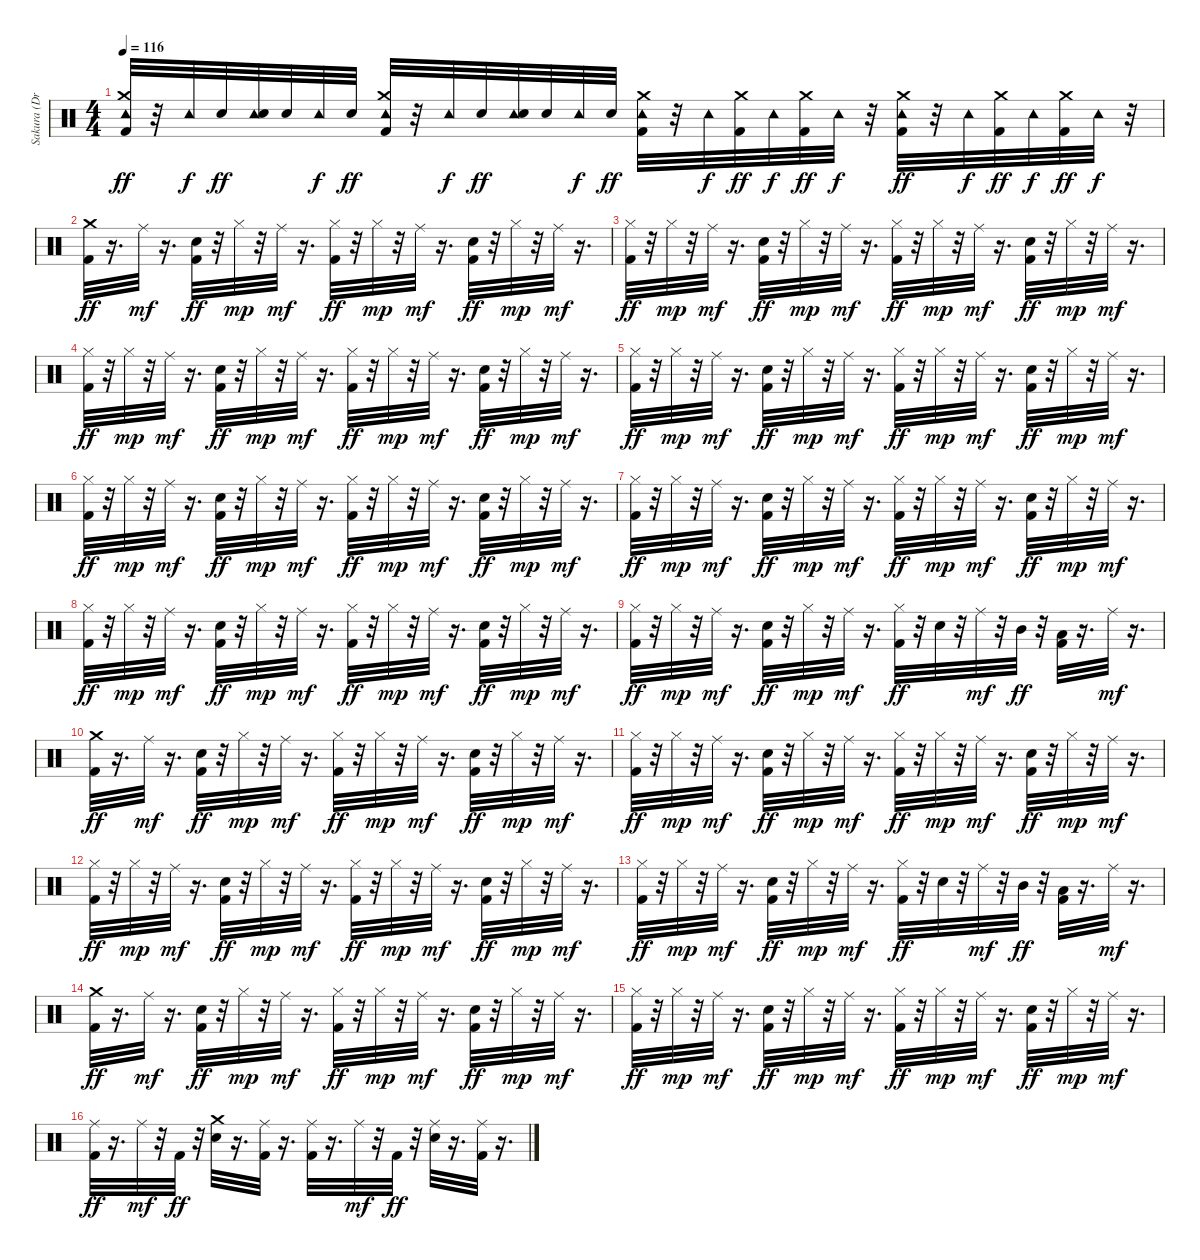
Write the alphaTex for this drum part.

\track ("Sakura (Drums)" "Sakura (Dr") {instrument percussion}
\staff {score}
\articulation defaults
\ts (4 4)
\tempo 116
\clef neutral
\ks c
("Tambourine (hit)" "Crash medium (hit)" "Kick (hit) 2").32{dy ff} r.32 "Tambourine (hit)".32{dy f} "Electric Snare (hit)".32{dy ff} ("Tambourine (hit)" "Electric Snare (hit)").32 "Electric Snare (hit)".32 "Tambourine (hit)".32{dy f} "Electric Snare (hit)".32{dy ff} ("Tambourine (hit)" "Crash medium (hit)" "Kick (hit) 2").32 r.32 "Tambourine (hit)".32{dy f} "Electric Snare (hit)".32{dy ff} ("Tambourine (hit)" "Electric Snare (hit)").32 "Electric Snare (hit)".32 "Tambourine (hit)".32{dy f} "Electric Snare (hit)".32{dy ff} ("Tambourine (hit)" "Crash medium (hit)" "Kick (hit) 2").32 r.32 "Tambourine (hit)".32{dy f} ("Crash medium (hit)" "Kick (hit) 2").32{dy ff} "Tambourine (hit)".32{dy f} ("Crash medium (hit)" "Kick (hit) 2").32{dy ff} "Tambourine (hit)".32{dy f} r.32 ("Tambourine (hit)" "Crash medium (hit)" "Kick (hit) 2").32{dy ff} r.32 "Tambourine (hit)".32{dy f} ("Crash medium (hit)" "Kick (hit) 2").32{dy ff} "Tambourine (hit)".32{dy f} ("Crash medium (hit)" "Kick (hit) 2").32{dy ff} "Tambourine (hit)".32{dy f} r.32 |
("Crash medium (hit)" "Kick (hit) 2").32{dy ff} r.16{d} "Ride (middle)".32{dy mf} r.16{d} ("Electric Snare (hit)" "Kick (hit) 2").32{dy ff} r.32 "Hi-Hat (closed)".32{dy mp} r.32 "Ride (middle)".32{dy mf} r.16{d} ("Hi-Hat (closed)" "Kick (hit) 2").32{dy ff} r.32 "Hi-Hat (closed)".32{dy mp} r.32 "Ride (middle)".32{dy mf} r.16{d} ("Electric Snare (hit)" "Kick (hit) 2").32{dy ff} r.32 "Hi-Hat (closed)".32{dy mp} r.32 "Ride (middle)".32{dy mf} r.16{d} |
("Hi-Hat (closed)" "Kick (hit) 2").32{dy ff} r.32 "Hi-Hat (closed)".32{dy mp} r.32 "Ride (middle)".32{dy mf} r.16{d} ("Electric Snare (hit)" "Kick (hit) 2").32{dy ff} r.32 "Hi-Hat (closed)".32{dy mp} r.32 "Ride (middle)".32{dy mf} r.16{d} ("Hi-Hat (closed)" "Kick (hit) 2").32{dy ff} r.32 "Hi-Hat (closed)".32{dy mp} r.32 "Ride (middle)".32{dy mf} r.16{d} ("Electric Snare (hit)" "Kick (hit) 2").32{dy ff} r.32 "Hi-Hat (closed)".32{dy mp} r.32 "Ride (middle)".32{dy mf} r.16{d} |
("Hi-Hat (closed)" "Kick (hit) 2").32{dy ff} r.32 "Hi-Hat (closed)".32{dy mp} r.32 "Ride (middle)".32{dy mf} r.16{d} ("Electric Snare (hit)" "Kick (hit) 2").32{dy ff} r.32 "Hi-Hat (closed)".32{dy mp} r.32 "Ride (middle)".32{dy mf} r.16{d} ("Hi-Hat (closed)" "Kick (hit) 2").32{dy ff} r.32 "Hi-Hat (closed)".32{dy mp} r.32 "Ride (middle)".32{dy mf} r.16{d} ("Electric Snare (hit)" "Kick (hit) 2").32{dy ff} r.32 "Hi-Hat (closed)".32{dy mp} r.32 "Ride (middle)".32{dy mf} r.16{d} |
("Hi-Hat (closed)" "Kick (hit) 2").32{dy ff} r.32 "Hi-Hat (closed)".32{dy mp} r.32 "Ride (middle)".32{dy mf} r.16{d} ("Electric Snare (hit)" "Kick (hit) 2").32{dy ff} r.32 "Hi-Hat (closed)".32{dy mp} r.32 "Ride (middle)".32{dy mf} r.16{d} ("Hi-Hat (closed)" "Kick (hit) 2").32{dy ff} r.32 "Hi-Hat (closed)".32{dy mp} r.32 "Ride (middle)".32{dy mf} r.16{d} ("Electric Snare (hit)" "Kick (hit) 2").32{dy ff} r.32 "Hi-Hat (closed)".32{dy mp} r.32 "Ride (middle)".32{dy mf} r.16{d} |
("Hi-Hat (closed)" "Kick (hit) 2").32{dy ff} r.32 "Hi-Hat (closed)".32{dy mp} r.32 "Ride (middle)".32{dy mf} r.16{d} ("Electric Snare (hit)" "Kick (hit) 2").32{dy ff} r.32 "Hi-Hat (closed)".32{dy mp} r.32 "Ride (middle)".32{dy mf} r.16{d} ("Hi-Hat (closed)" "Kick (hit) 2").32{dy ff} r.32 "Hi-Hat (closed)".32{dy mp} r.32 "Ride (middle)".32{dy mf} r.16{d} ("Electric Snare (hit)" "Kick (hit) 2").32{dy ff} r.32 "Hi-Hat (closed)".32{dy mp} r.32 "Ride (middle)".32{dy mf} r.16{d} |
("Hi-Hat (closed)" "Kick (hit) 2").32{dy ff} r.32 "Hi-Hat (closed)".32{dy mp} r.32 "Ride (middle)".32{dy mf} r.16{d} ("Electric Snare (hit)" "Kick (hit) 2").32{dy ff} r.32 "Hi-Hat (closed)".32{dy mp} r.32 "Ride (middle)".32{dy mf} r.16{d} ("Hi-Hat (closed)" "Kick (hit) 2").32{dy ff} r.32 "Hi-Hat (closed)".32{dy mp} r.32 "Ride (middle)".32{dy mf} r.16{d} ("Electric Snare (hit)" "Kick (hit) 2").32{dy ff} r.32 "Hi-Hat (closed)".32{dy mp} r.32 "Ride (middle)".32{dy mf} r.16{d} |
("Hi-Hat (closed)" "Kick (hit) 2").32{dy ff} r.32 "Hi-Hat (closed)".32{dy mp} r.32 "Ride (middle)".32{dy mf} r.16{d} ("Electric Snare (hit)" "Kick (hit) 2").32{dy ff} r.32 "Hi-Hat (closed)".32{dy mp} r.32 "Ride (middle)".32{dy mf} r.16{d} ("Hi-Hat (closed)" "Kick (hit) 2").32{dy ff} r.32 "Hi-Hat (closed)".32{dy mp} r.32 "Ride (middle)".32{dy mf} r.16{d} ("Electric Snare (hit)" "Kick (hit) 2").32{dy ff} r.32 "Hi-Hat (closed)".32{dy mp} r.32 "Ride (middle)".32{dy mf} r.16{d} |
("Hi-Hat (closed)" "Kick (hit) 2").32{dy ff} r.32 "Hi-Hat (closed)".32{dy mp} r.32 "Ride (middle)".32{dy mf} r.16{d} ("Electric Snare (hit)" "Kick (hit) 2").32{dy ff} r.32 "Hi-Hat (closed)".32{dy mp} r.32 "Ride (middle)".32{dy mf} r.16{d} ("Hi-Hat (closed)" "Kick (hit) 2").32{dy ff} r.32 "Electric Snare (hit)".32 r.32 "Ride (middle)".32{dy mf} r.32 "Mid Tom (hit)".32{dy ff} r.32 ("Low Tom (hit)" "Kick (hit) 2").32 r.16{d} "Ride (middle)".32{dy mf} r.16{d} |
("Crash medium (hit)" "Kick (hit) 2").32{dy ff} r.16{d} "Ride (middle)".32{dy mf} r.16{d} ("Electric Snare (hit)" "Kick (hit) 2").32{dy ff} r.32 "Hi-Hat (closed)".32{dy mp} r.32 "Ride (middle)".32{dy mf} r.16{d} ("Hi-Hat (closed)" "Kick (hit) 2").32{dy ff} r.32 "Hi-Hat (closed)".32{dy mp} r.32 "Ride (middle)".32{dy mf} r.16{d} ("Electric Snare (hit)" "Kick (hit) 2").32{dy ff} r.32 "Hi-Hat (closed)".32{dy mp} r.32 "Ride (middle)".32{dy mf} r.16{d} |
("Hi-Hat (closed)" "Kick (hit) 2").32{dy ff} r.32 "Hi-Hat (closed)".32{dy mp} r.32 "Ride (middle)".32{dy mf} r.16{d} ("Electric Snare (hit)" "Kick (hit) 2").32{dy ff} r.32 "Hi-Hat (closed)".32{dy mp} r.32 "Ride (middle)".32{dy mf} r.16{d} ("Hi-Hat (closed)" "Kick (hit) 2").32{dy ff} r.32 "Hi-Hat (closed)".32{dy mp} r.32 "Ride (middle)".32{dy mf} r.16{d} ("Electric Snare (hit)" "Kick (hit) 2").32{dy ff} r.32 "Hi-Hat (closed)".32{dy mp} r.32 "Ride (middle)".32{dy mf} r.16{d} |
("Hi-Hat (closed)" "Kick (hit) 2").32{dy ff} r.32 "Hi-Hat (closed)".32{dy mp} r.32 "Ride (middle)".32{dy mf} r.16{d} ("Electric Snare (hit)" "Kick (hit) 2").32{dy ff} r.32 "Hi-Hat (closed)".32{dy mp} r.32 "Ride (middle)".32{dy mf} r.16{d} ("Hi-Hat (closed)" "Kick (hit) 2").32{dy ff} r.32 "Hi-Hat (closed)".32{dy mp} r.32 "Ride (middle)".32{dy mf} r.16{d} ("Electric Snare (hit)" "Kick (hit) 2").32{dy ff} r.32 "Hi-Hat (closed)".32{dy mp} r.32 "Ride (middle)".32{dy mf} r.16{d} |
("Hi-Hat (closed)" "Kick (hit) 2").32{dy ff} r.32 "Hi-Hat (closed)".32{dy mp} r.32 "Ride (middle)".32{dy mf} r.16{d} ("Electric Snare (hit)" "Kick (hit) 2").32{dy ff} r.32 "Hi-Hat (closed)".32{dy mp} r.32 "Ride (middle)".32{dy mf} r.16{d} ("Hi-Hat (closed)" "Kick (hit) 2").32{dy ff} r.32 "Electric Snare (hit)".32 r.32 "Ride (middle)".32{dy mf} r.32 "Mid Tom (hit)".32{dy ff} r.32 ("Low Tom (hit)" "Kick (hit) 2").32 r.16{d} "Ride (middle)".32{dy mf} r.16{d} |
("Crash medium (hit)" "Kick (hit) 2").32{dy ff} r.16{d} "Ride (middle)".32{dy mf} r.16{d} ("Electric Snare (hit)" "Kick (hit) 2").32{dy ff} r.32 "Hi-Hat (closed)".32{dy mp} r.32 "Ride (middle)".32{dy mf} r.16{d} ("Hi-Hat (closed)" "Kick (hit) 2").32{dy ff} r.32 "Hi-Hat (closed)".32{dy mp} r.32 "Ride (middle)".32{dy mf} r.16{d} ("Electric Snare (hit)" "Kick (hit) 2").32{dy ff} r.32 "Hi-Hat (closed)".32{dy mp} r.32 "Ride (middle)".32{dy mf} r.16{d} |
("Hi-Hat (closed)" "Kick (hit) 2").32{dy ff} r.32 "Hi-Hat (closed)".32{dy mp} r.32 "Ride (middle)".32{dy mf} r.16{d} ("Electric Snare (hit)" "Kick (hit) 2").32{dy ff} r.32 "Hi-Hat (closed)".32{dy mp} r.32 "Ride (middle)".32{dy mf} r.16{d} ("Hi-Hat (closed)" "Kick (hit) 2").32{dy ff} r.32 "Hi-Hat (closed)".32{dy mp} r.32 "Ride (middle)".32{dy mf} r.16{d} ("Electric Snare (hit)" "Kick (hit) 2").32{dy ff} r.32 "Hi-Hat (closed)".32{dy mp} r.32 "Ride (middle)".32{dy mf} r.16{d} |
("Ride (middle)" "Kick (hit) 2").32{dy ff} r.16{d} "Ride (middle)".32{dy mf} r.32 "Kick (hit) 2".32{dy ff} r.32 ("Crash medium (hit)" "Electric Snare (hit)").32 r.16{d} ("Ride (middle)" "Kick (hit) 2").32 r.16{d} ("Ride (middle)" "Kick (hit) 2").32 r.16{d} "Ride (middle)".32{dy mf} r.32 "Kick (hit) 2".32{dy ff} r.32 ("Ride (middle)" "Electric Snare (hit)").32 r.16{d} ("Ride (middle)" "Kick (hit) 2").32 r.16{d}
